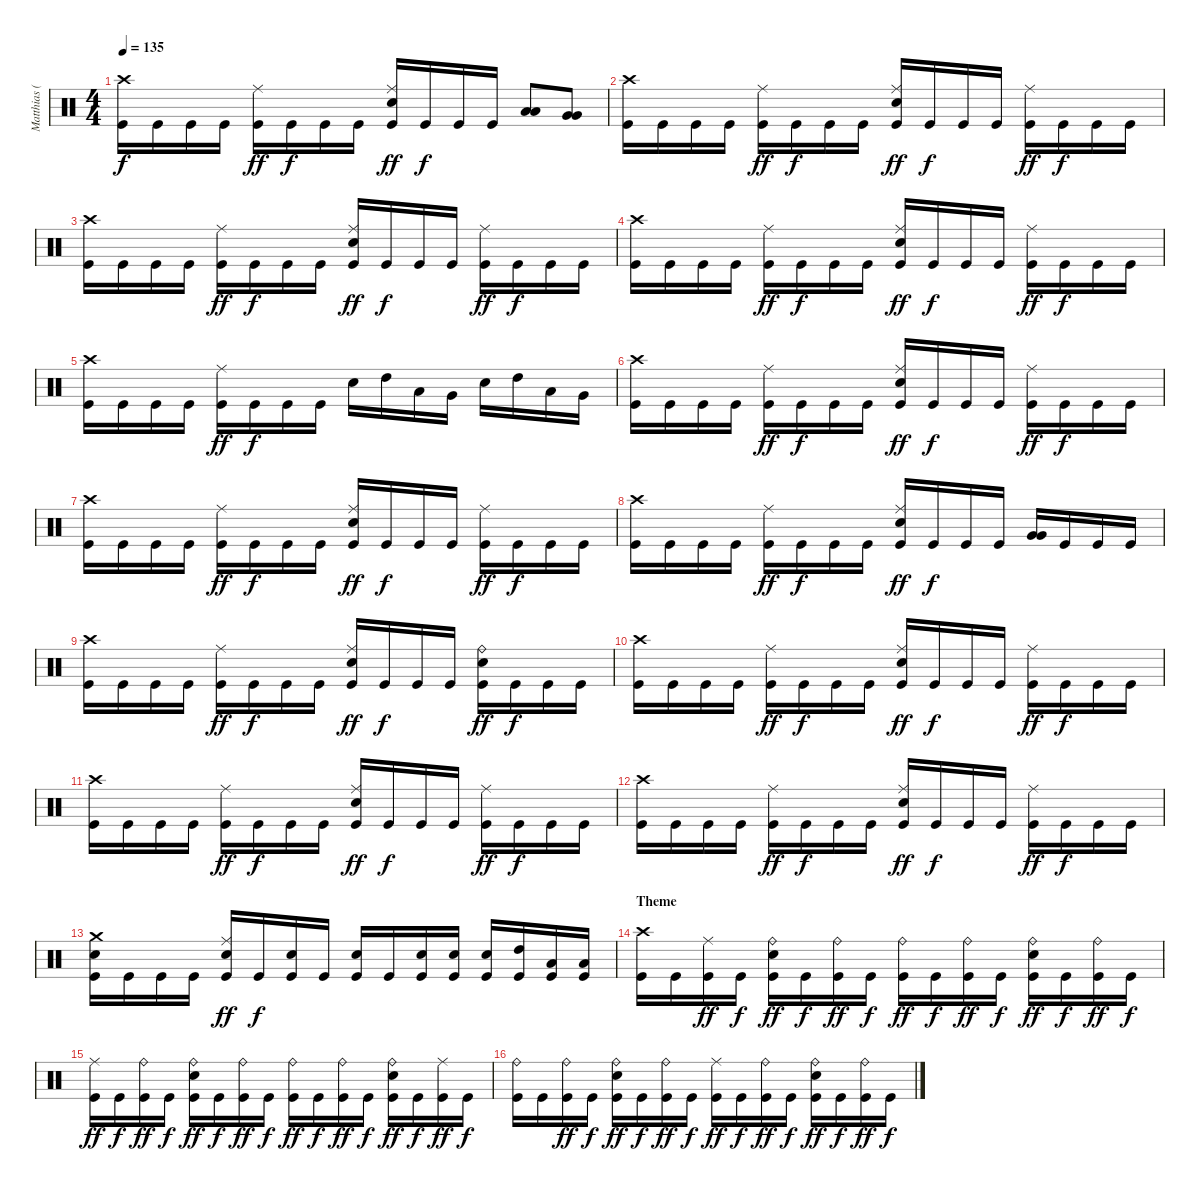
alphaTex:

\track ("Matthias (Drums)" "Matthias (") {instrument percussion}
\staff {score}
\articulation defaults
\ts (4 4)
\tempo 135
\clef neutral
\ks c
("Crash high (hit)" "Kick (hit)").16{dy f} "Kick (hit)".16 "Kick (hit)".16 "Kick (hit)".16 ("Ride (middle)" "Kick (hit)").16{dy ff} "Kick (hit)".16{dy f} "Kick (hit)".16 "Kick (hit)".16 ("Ride (middle)" "Electric Snare (hit)" "Kick (hit)").16{dy ff} "Kick (hit)".16{dy f} "Kick (hit)".16 "Kick (hit)".16 ("Low Tom (hit)" "Low Tom (hit)").8{bu 120} ("Very Low Tom (hit)" "Very Low Tom (hit)").8{bu 120} |
("Crash high (hit)" "Kick (hit)").16 "Kick (hit)".16 "Kick (hit)".16 "Kick (hit)".16 ("Ride (middle)" "Kick (hit)").16{dy ff} "Kick (hit)".16{dy f} "Kick (hit)".16 "Kick (hit)".16 ("Ride (middle)" "Electric Snare (hit)" "Kick (hit)").16{dy ff} "Kick (hit)".16{dy f} "Kick (hit)".16 "Kick (hit)".16 ("Ride (middle)" "Kick (hit)").16{dy ff} "Kick (hit)".16{dy f} "Kick (hit)".16 "Kick (hit)".16 |
("Crash high (hit)" "Kick (hit)").16 "Kick (hit)".16 "Kick (hit)".16 "Kick (hit)".16 ("Ride (middle)" "Kick (hit)").16{dy ff} "Kick (hit)".16{dy f} "Kick (hit)".16 "Kick (hit)".16 ("Ride (middle)" "Electric Snare (hit)" "Kick (hit)").16{dy ff} "Kick (hit)".16{dy f} "Kick (hit)".16 "Kick (hit)".16 ("Ride (middle)" "Kick (hit)").16{dy ff} "Kick (hit)".16{dy f} "Kick (hit)".16 "Kick (hit)".16 |
("Crash high (hit)" "Kick (hit)").16 "Kick (hit)".16 "Kick (hit)".16 "Kick (hit)".16 ("Ride (middle)" "Kick (hit)").16{dy ff} "Kick (hit)".16{dy f} "Kick (hit)".16 "Kick (hit)".16 ("Ride (middle)" "Electric Snare (hit)" "Kick (hit)").16{dy ff} "Kick (hit)".16{dy f} "Kick (hit)".16 "Kick (hit)".16 ("Ride (middle)" "Kick (hit)").16{dy ff} "Kick (hit)".16{dy f} "Kick (hit)".16 "Kick (hit)".16 |
("Crash high (hit)" "Kick (hit)").16 "Kick (hit)".16 "Kick (hit)".16 "Kick (hit)".16 ("Ride (middle)" "Kick (hit)").16{dy ff} "Kick (hit)".16{dy f} "Kick (hit)".16 "Kick (hit)".16 "Electric Snare (hit)".16 "High Tom (hit)".16 "Low Tom (hit)".16 "Very Low Tom (hit)".16 "Electric Snare (hit)".16 "High Tom (hit)".16 "Low Tom (hit)".16 "Very Low Tom (hit)".16 |
("Crash high (hit)" "Kick (hit)").16 "Kick (hit)".16 "Kick (hit)".16 "Kick (hit)".16 ("Ride (middle)" "Kick (hit)").16{dy ff} "Kick (hit)".16{dy f} "Kick (hit)".16 "Kick (hit)".16 ("Ride (middle)" "Electric Snare (hit)" "Kick (hit)").16{dy ff} "Kick (hit)".16{dy f} "Kick (hit)".16 "Kick (hit)".16 ("Ride (middle)" "Kick (hit)").16{dy ff} "Kick (hit)".16{dy f} "Kick (hit)".16 "Kick (hit)".16 |
("Crash high (hit)" "Kick (hit)").16 "Kick (hit)".16 "Kick (hit)".16 "Kick (hit)".16 ("Ride (middle)" "Kick (hit)").16{dy ff} "Kick (hit)".16{dy f} "Kick (hit)".16 "Kick (hit)".16 ("Ride (middle)" "Electric Snare (hit)" "Kick (hit)").16{dy ff} "Kick (hit)".16{dy f} "Kick (hit)".16 "Kick (hit)".16 ("Ride (middle)" "Kick (hit)").16{dy ff} "Kick (hit)".16{dy f} "Kick (hit)".16 "Kick (hit)".16 |
("Crash high (hit)" "Kick (hit)").16 "Kick (hit)".16 "Kick (hit)".16 "Kick (hit)".16 ("Ride (middle)" "Kick (hit)").16{dy ff} "Kick (hit)".16{dy f} "Kick (hit)".16 "Kick (hit)".16 ("Ride (middle)" "Electric Snare (hit)" "Kick (hit)").16{dy ff} "Kick (hit)".16{dy f} "Kick (hit)".16 "Kick (hit)".16 ("Very Low Tom (hit)" "Very Low Tom (hit)").16{bd 120} "Kick (hit)".16 "Kick (hit)".16 "Kick (hit)".16 |
("Crash high (hit)" "Kick (hit)").16 "Kick (hit)".16 "Kick (hit)".16 "Kick (hit)".16 ("Ride (middle)" "Kick (hit)").16{dy ff} "Kick (hit)".16{dy f} "Kick (hit)".16 "Kick (hit)".16 ("Ride (middle)" "Electric Snare (hit)" "Kick (hit)").16{dy ff} "Kick (hit)".16{dy f} "Kick (hit)".16 "Kick (hit)".16 ("Ride (bell)" "Electric Snare (hit)" "Kick (hit)").16{dy ff} "Kick (hit)".16{dy f} "Kick (hit)".16 "Kick (hit)".16 |
("Crash high (hit)" "Kick (hit)").16 "Kick (hit)".16 "Kick (hit)".16 "Kick (hit)".16 ("Ride (middle)" "Kick (hit)").16{dy ff} "Kick (hit)".16{dy f} "Kick (hit)".16 "Kick (hit)".16 ("Ride (middle)" "Electric Snare (hit)" "Kick (hit)").16{dy ff} "Kick (hit)".16{dy f} "Kick (hit)".16 "Kick (hit)".16 ("Ride (middle)" "Kick (hit)").16{dy ff} "Kick (hit)".16{dy f} "Kick (hit)".16 "Kick (hit)".16 |
("Crash high (hit)" "Kick (hit)").16 "Kick (hit)".16 "Kick (hit)".16 "Kick (hit)".16 ("Ride (middle)" "Kick (hit)").16{dy ff} "Kick (hit)".16{dy f} "Kick (hit)".16 "Kick (hit)".16 ("Ride (middle)" "Electric Snare (hit)" "Kick (hit)").16{dy ff} "Kick (hit)".16{dy f} "Kick (hit)".16 "Kick (hit)".16 ("Ride (middle)" "Kick (hit)").16{dy ff} "Kick (hit)".16{dy f} "Kick (hit)".16 "Kick (hit)".16 |
("Crash high (hit)" "Kick (hit)").16 "Kick (hit)".16 "Kick (hit)".16 "Kick (hit)".16 ("Ride (middle)" "Kick (hit)").16{dy ff} "Kick (hit)".16{dy f} "Kick (hit)".16 "Kick (hit)".16 ("Ride (middle)" "Electric Snare (hit)" "Kick (hit)").16{dy ff} "Kick (hit)".16{dy f} "Kick (hit)".16 "Kick (hit)".16 ("Ride (middle)" "Kick (hit)").16{dy ff} "Kick (hit)".16{dy f} "Kick (hit)".16 "Kick (hit)".16 |
("Crash medium (hit)" "Electric Snare (hit)" "Kick (hit)").16 "Kick (hit)".16 "Kick (hit)".16 "Kick (hit)".16 ("Ride (middle)" "Electric Snare (hit)" "Kick (hit)").16{dy ff} "Kick (hit)".16{dy f} ("Electric Snare (hit)" "Kick (hit)").16 "Kick (hit)".16 ("Electric Snare (hit)" "Kick (hit)").16 "Kick (hit)".16 ("Electric Snare (hit)" "Kick (hit)").16 ("Electric Snare (hit)" "Kick (hit)").16 ("Electric Snare (hit)" "Kick (hit)").16 ("High Tom (hit)" "Kick (hit)").16 ("Low Tom (hit)" "Kick (hit)").16 ("Low Tom (hit)" "Kick (hit)").16 |
\section ("" "Theme")
("Crash high (hit)" "Kick (hit)").16 "Kick (hit)".16 ("Ride (middle)" "Kick (hit)").16{dy ff} "Kick (hit)".16{dy f} ("Ride (bell)" "Electric Snare (hit)" "Kick (hit)").16{dy ff} "Kick (hit)".16{dy f} ("Ride (bell)" "Kick (hit)").16{dy ff} "Kick (hit)".16{dy f} ("Ride (bell)" "Kick (hit)").16{dy ff} "Kick (hit)".16{dy f} ("Ride (bell)" "Kick (hit)").16{dy ff} "Kick (hit)".16{dy f} ("Ride (bell)" "Electric Snare (hit)" "Kick (hit)").16{dy ff} "Kick (hit)".16{dy f} ("Ride (bell)" "Kick (hit)").16{dy ff} "Kick (hit)".16{dy f} |
("Ride (middle)" "Kick (hit)").16{dy ff} "Kick (hit)".16{dy f} ("Ride (bell)" "Kick (hit)").16{dy ff} "Kick (hit)".16{dy f} ("Ride (bell)" "Electric Snare (hit)" "Kick (hit)").16{dy ff} "Kick (hit)".16{dy f} ("Ride (bell)" "Kick (hit)").16{dy ff} "Kick (hit)".16{dy f} ("Ride (bell)" "Kick (hit)").16{dy ff} "Kick (hit)".16{dy f} ("Ride (bell)" "Kick (hit)").16{dy ff} "Kick (hit)".16{dy f} ("Ride (bell)" "Electric Snare (hit)" "Kick (hit)").16{dy ff} "Kick (hit)".16{dy f} ("Ride (middle)" "Kick (hit)").16{dy ff} "Kick (hit)".16{dy f} |
("Ride (bell)" "Kick (hit)").16 "Kick (hit)".16 ("Ride (bell)" "Kick (hit)").16{dy ff} "Kick (hit)".16{dy f} ("Ride (bell)" "Electric Snare (hit)" "Kick (hit)").16{dy ff} "Kick (hit)".16{dy f} ("Ride (bell)" "Kick (hit)").16{dy ff} "Kick (hit)".16{dy f} ("Ride (middle)" "Kick (hit)").16{dy ff} "Kick (hit)".16{dy f} ("Ride (bell)" "Kick (hit)").16{dy ff} "Kick (hit)".16{dy f} ("Ride (bell)" "Electric Snare (hit)" "Kick (hit)").16{dy ff} "Kick (hit)".16{dy f} ("Ride (bell)" "Kick (hit)").16{dy ff} "Kick (hit)".16{dy f}
